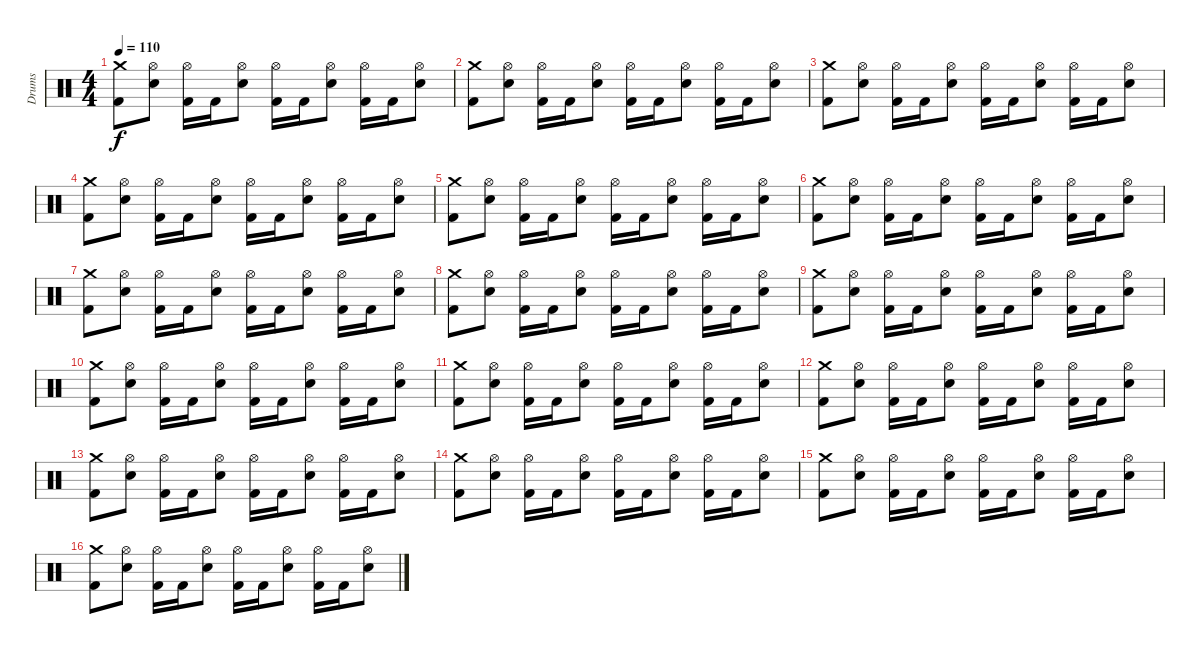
\track ("Drums" "Drums") {instrument percussion}
\staff {score}
\articulation defaults
\ts (4 4)
\tempo 110
\clef neutral
\ks c
("Crash medium (hit)" "Kick (hit) 2").8{dy f} ("Hi-Hat (open)" "Snare (hit) 2").8 ("Hi-Hat (open)" "Kick (hit) 2").16 "Kick (hit) 2".16 ("Hi-Hat (open)" "Snare (hit) 2").8 ("Hi-Hat (open)" "Kick (hit) 2").16 "Kick (hit) 2".16 ("Hi-Hat (open)" "Snare (hit) 2").8 ("Hi-Hat (open)" "Kick (hit) 2").16 "Kick (hit) 2".16 ("Hi-Hat (open)" "Snare (hit) 2").8 |
("Crash medium (hit)" "Kick (hit) 2").8 ("Hi-Hat (open)" "Snare (hit) 2").8 ("Hi-Hat (open)" "Kick (hit) 2").16 "Kick (hit) 2".16 ("Hi-Hat (open)" "Snare (hit) 2").8 ("Hi-Hat (open)" "Kick (hit) 2").16 "Kick (hit) 2".16 ("Hi-Hat (open)" "Snare (hit) 2").8 ("Hi-Hat (open)" "Kick (hit) 2").16 "Kick (hit) 2".16 ("Hi-Hat (open)" "Snare (hit) 2").8 |
("Crash medium (hit)" "Kick (hit) 2").8 ("Hi-Hat (open)" "Snare (hit) 2").8 ("Hi-Hat (open)" "Kick (hit) 2").16 "Kick (hit) 2".16 ("Hi-Hat (open)" "Snare (hit) 2").8 ("Hi-Hat (open)" "Kick (hit) 2").16 "Kick (hit) 2".16 ("Hi-Hat (open)" "Snare (hit) 2").8 ("Hi-Hat (open)" "Kick (hit) 2").16 "Kick (hit) 2".16 ("Hi-Hat (open)" "Snare (hit) 2").8 |
("Crash medium (hit)" "Kick (hit) 2").8 ("Hi-Hat (open)" "Snare (hit) 2").8 ("Hi-Hat (open)" "Kick (hit) 2").16 "Kick (hit) 2".16 ("Hi-Hat (open)" "Snare (hit) 2").8 ("Hi-Hat (open)" "Kick (hit) 2").16 "Kick (hit) 2".16 ("Hi-Hat (open)" "Snare (hit) 2").8 ("Hi-Hat (open)" "Kick (hit) 2").16 "Kick (hit) 2".16 ("Hi-Hat (open)" "Snare (hit) 2").8 |
("Crash medium (hit)" "Kick (hit) 2").8 ("Hi-Hat (open)" "Snare (hit) 2").8 ("Hi-Hat (open)" "Kick (hit) 2").16 "Kick (hit) 2".16 ("Hi-Hat (open)" "Snare (hit) 2").8 ("Hi-Hat (open)" "Kick (hit) 2").16 "Kick (hit) 2".16 ("Hi-Hat (open)" "Snare (hit) 2").8 ("Hi-Hat (open)" "Kick (hit) 2").16 "Kick (hit) 2".16 ("Hi-Hat (open)" "Snare (hit) 2").8 |
("Crash medium (hit)" "Kick (hit) 2").8 ("Hi-Hat (open)" "Snare (hit) 2").8 ("Hi-Hat (open)" "Kick (hit) 2").16 "Kick (hit) 2".16 ("Hi-Hat (open)" "Snare (hit) 2").8 ("Hi-Hat (open)" "Kick (hit) 2").16 "Kick (hit) 2".16 ("Hi-Hat (open)" "Snare (hit) 2").8 ("Hi-Hat (open)" "Kick (hit) 2").16 "Kick (hit) 2".16 ("Hi-Hat (open)" "Snare (hit) 2").8 |
("Crash medium (hit)" "Kick (hit) 2").8 ("Hi-Hat (open)" "Snare (hit) 2").8 ("Hi-Hat (open)" "Kick (hit) 2").16 "Kick (hit) 2".16 ("Hi-Hat (open)" "Snare (hit) 2").8 ("Hi-Hat (open)" "Kick (hit) 2").16 "Kick (hit) 2".16 ("Hi-Hat (open)" "Snare (hit) 2").8 ("Hi-Hat (open)" "Kick (hit) 2").16 "Kick (hit) 2".16 ("Hi-Hat (open)" "Snare (hit) 2").8 |
("Crash medium (hit)" "Kick (hit) 2").8 ("Hi-Hat (open)" "Snare (hit) 2").8 ("Hi-Hat (open)" "Kick (hit) 2").16 "Kick (hit) 2".16 ("Hi-Hat (open)" "Snare (hit) 2").8 ("Hi-Hat (open)" "Kick (hit) 2").16 "Kick (hit) 2".16 ("Hi-Hat (open)" "Snare (hit) 2").8 ("Hi-Hat (open)" "Kick (hit) 2").16 "Kick (hit) 2".16 ("Hi-Hat (open)" "Snare (hit) 2").8 |
("Crash medium (hit)" "Kick (hit) 2").8 ("Hi-Hat (open)" "Snare (hit) 2").8 ("Hi-Hat (open)" "Kick (hit) 2").16 "Kick (hit) 2".16 ("Hi-Hat (open)" "Snare (hit) 2").8 ("Hi-Hat (open)" "Kick (hit) 2").16 "Kick (hit) 2".16 ("Hi-Hat (open)" "Snare (hit) 2").8 ("Hi-Hat (open)" "Kick (hit) 2").16 "Kick (hit) 2".16 ("Hi-Hat (open)" "Snare (hit) 2").8 |
("Crash medium (hit)" "Kick (hit) 2").8 ("Hi-Hat (open)" "Snare (hit) 2").8 ("Hi-Hat (open)" "Kick (hit) 2").16 "Kick (hit) 2".16 ("Hi-Hat (open)" "Snare (hit) 2").8 ("Hi-Hat (open)" "Kick (hit) 2").16 "Kick (hit) 2".16 ("Hi-Hat (open)" "Snare (hit) 2").8 ("Hi-Hat (open)" "Kick (hit) 2").16 "Kick (hit) 2".16 ("Hi-Hat (open)" "Snare (hit) 2").8 |
("Crash medium (hit)" "Kick (hit) 2").8 ("Hi-Hat (open)" "Snare (hit) 2").8 ("Hi-Hat (open)" "Kick (hit) 2").16 "Kick (hit) 2".16 ("Hi-Hat (open)" "Snare (hit) 2").8 ("Hi-Hat (open)" "Kick (hit) 2").16 "Kick (hit) 2".16 ("Hi-Hat (open)" "Snare (hit) 2").8 ("Hi-Hat (open)" "Kick (hit) 2").16 "Kick (hit) 2".16 ("Hi-Hat (open)" "Snare (hit) 2").8 |
("Crash medium (hit)" "Kick (hit) 2").8 ("Hi-Hat (open)" "Snare (hit) 2").8 ("Hi-Hat (open)" "Kick (hit) 2").16 "Kick (hit) 2".16 ("Hi-Hat (open)" "Snare (hit) 2").8 ("Hi-Hat (open)" "Kick (hit) 2").16 "Kick (hit) 2".16 ("Hi-Hat (open)" "Snare (hit) 2").8 ("Hi-Hat (open)" "Kick (hit) 2").16 "Kick (hit) 2".16 ("Hi-Hat (open)" "Snare (hit) 2").8 |
("Crash medium (hit)" "Kick (hit) 2").8 ("Hi-Hat (open)" "Snare (hit) 2").8 ("Hi-Hat (open)" "Kick (hit) 2").16 "Kick (hit) 2".16 ("Hi-Hat (open)" "Snare (hit) 2").8 ("Hi-Hat (open)" "Kick (hit) 2").16 "Kick (hit) 2".16 ("Hi-Hat (open)" "Snare (hit) 2").8 ("Hi-Hat (open)" "Kick (hit) 2").16 "Kick (hit) 2".16 ("Hi-Hat (open)" "Snare (hit) 2").8 |
("Crash medium (hit)" "Kick (hit) 2").8 ("Hi-Hat (open)" "Snare (hit) 2").8 ("Hi-Hat (open)" "Kick (hit) 2").16 "Kick (hit) 2".16 ("Hi-Hat (open)" "Snare (hit) 2").8 ("Hi-Hat (open)" "Kick (hit) 2").16 "Kick (hit) 2".16 ("Hi-Hat (open)" "Snare (hit) 2").8 ("Hi-Hat (open)" "Kick (hit) 2").16 "Kick (hit) 2".16 ("Hi-Hat (open)" "Snare (hit) 2").8 |
("Crash medium (hit)" "Kick (hit) 2").8 ("Hi-Hat (open)" "Snare (hit) 2").8 ("Hi-Hat (open)" "Kick (hit) 2").16 "Kick (hit) 2".16 ("Hi-Hat (open)" "Snare (hit) 2").8 ("Hi-Hat (open)" "Kick (hit) 2").16 "Kick (hit) 2".16 ("Hi-Hat (open)" "Snare (hit) 2").8 ("Hi-Hat (open)" "Kick (hit) 2").16 "Kick (hit) 2".16 ("Hi-Hat (open)" "Snare (hit) 2").8 |
("Crash medium (hit)" "Kick (hit) 2").8 ("Hi-Hat (open)" "Snare (hit) 2").8 ("Hi-Hat (open)" "Kick (hit) 2").16 "Kick (hit) 2".16 ("Hi-Hat (open)" "Snare (hit) 2").8 ("Hi-Hat (open)" "Kick (hit) 2").16 "Kick (hit) 2".16 ("Hi-Hat (open)" "Snare (hit) 2").8 ("Hi-Hat (open)" "Kick (hit) 2").16 "Kick (hit) 2".16 ("Hi-Hat (open)" "Snare (hit) 2").8
